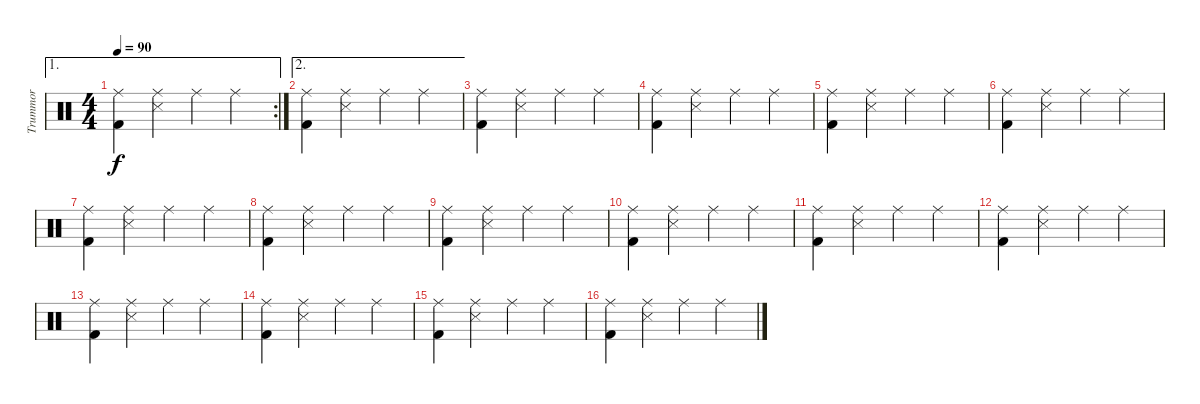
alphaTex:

\track ("Trummor" "Trummor") {instrument percussion}
\staff {score}
\articulation defaults
\ae 1
\rc 2
\ts (4 4)
\tempo 90
\clef neutral
\ks c
("Kick (hit) 2" "Ride (middle)").4{dy f} ("Snare (side stick) 3" "Ride (middle)").4 "Ride (middle)".4 "Ride (middle)".4 |
\ae 2
("Kick (hit) 2" "Ride (middle)").4 ("Snare (side stick) 3" "Ride (middle)").4 "Ride (middle)".4 "Ride (middle)".4 |
("Kick (hit) 2" "Ride (middle)").4 ("Snare (side stick) 3" "Ride (middle)").4 "Ride (middle)".4 "Ride (middle)".4 |
("Kick (hit) 2" "Ride (middle)").4 ("Snare (side stick) 3" "Ride (middle)").4 "Ride (middle)".4 "Ride (middle)".4 |
("Kick (hit) 2" "Ride (middle)").4 ("Snare (side stick) 3" "Ride (middle)").4 "Ride (middle)".4 "Ride (middle)".4 |
("Kick (hit) 2" "Ride (middle)").4 ("Snare (side stick) 3" "Ride (middle)").4 "Ride (middle)".4 "Ride (middle)".4 |
("Kick (hit) 2" "Ride (middle)").4 ("Snare (side stick) 3" "Ride (middle)").4 "Ride (middle)".4 "Ride (middle)".4 |
("Kick (hit) 2" "Ride (middle)").4 ("Snare (side stick) 3" "Ride (middle)").4 "Ride (middle)".4 "Ride (middle)".4 |
("Kick (hit) 2" "Ride (middle)").4 ("Snare (side stick) 3" "Ride (middle)").4 "Ride (middle)".4 "Ride (middle)".4 |
("Kick (hit) 2" "Ride (middle)").4 ("Snare (side stick) 3" "Ride (middle)").4 "Ride (middle)".4 "Ride (middle)".4 |
("Kick (hit) 2" "Ride (middle)").4 ("Snare (side stick) 3" "Ride (middle)").4 "Ride (middle)".4 "Ride (middle)".4 |
("Kick (hit) 2" "Ride (middle)").4 ("Snare (side stick) 3" "Ride (middle)").4 "Ride (middle)".4 "Ride (middle)".4 |
("Kick (hit) 2" "Ride (middle)").4 ("Snare (side stick) 3" "Ride (middle)").4 "Ride (middle)".4 "Ride (middle)".4 |
("Kick (hit) 2" "Ride (middle)").4 ("Snare (side stick) 3" "Ride (middle)").4 "Ride (middle)".4 "Ride (middle)".4 |
("Kick (hit) 2" "Ride (middle)").4 ("Snare (side stick) 3" "Ride (middle)").4 "Ride (middle)".4 "Ride (middle)".4 |
("Kick (hit) 2" "Ride (middle)").4 ("Snare (side stick) 3" "Ride (middle)").4 "Ride (middle)".4 "Ride (middle)".4
